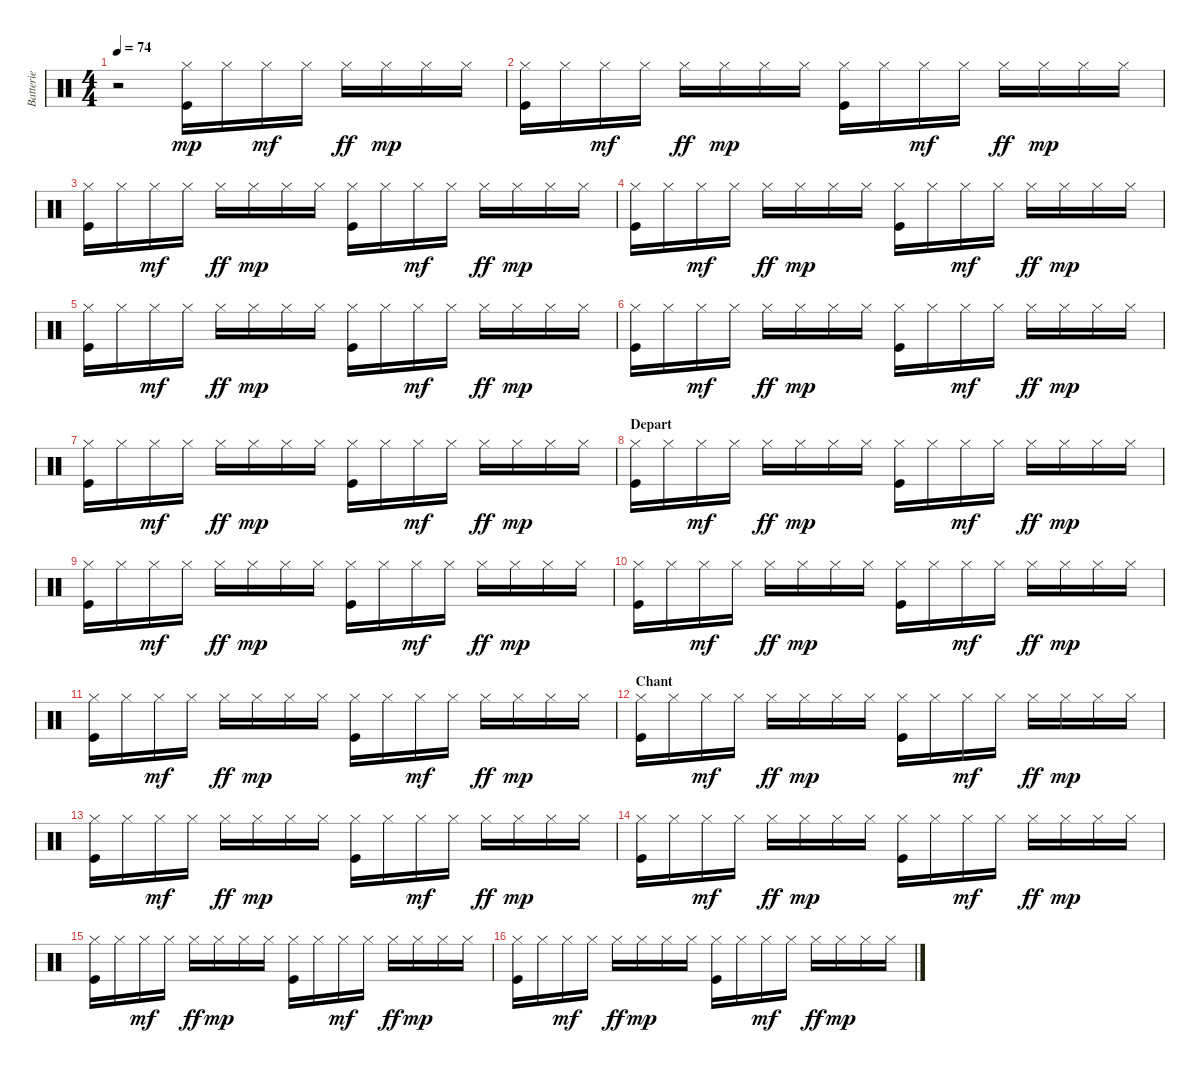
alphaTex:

\track ("Batterie" "Batterie") {instrument percussion}
\staff {score}
\articulation defaults
\ts (4 4)
\tempo 74
\clef neutral
\ks c
r.2{dy mp} ("Hi-Hat (closed)" "Kick (hit)").16 "Hi-Hat (closed)".16 "Hi-Hat (closed)".16{dy mf} "Hi-Hat (closed)".16 "Hi-Hat (closed)".16{dy ff} "Hi-Hat (closed)".16{dy mp} "Hi-Hat (closed)".16 "Hi-Hat (closed)".16 |
("Hi-Hat (closed)" "Kick (hit)").16 "Hi-Hat (closed)".16 "Hi-Hat (closed)".16{dy mf} "Hi-Hat (closed)".16 "Hi-Hat (closed)".16{dy ff} "Hi-Hat (closed)".16{dy mp} "Hi-Hat (closed)".16 "Hi-Hat (closed)".16 ("Hi-Hat (closed)" "Kick (hit)").16 "Hi-Hat (closed)".16 "Hi-Hat (closed)".16{dy mf} "Hi-Hat (closed)".16 "Hi-Hat (closed)".16{dy ff} "Hi-Hat (closed)".16{dy mp} "Hi-Hat (closed)".16 "Hi-Hat (closed)".16 |
("Hi-Hat (closed)" "Kick (hit)").16 "Hi-Hat (closed)".16 "Hi-Hat (closed)".16{dy mf} "Hi-Hat (closed)".16 "Hi-Hat (closed)".16{dy ff} "Hi-Hat (closed)".16{dy mp} "Hi-Hat (closed)".16 "Hi-Hat (closed)".16 ("Hi-Hat (closed)" "Kick (hit)").16 "Hi-Hat (closed)".16 "Hi-Hat (closed)".16{dy mf} "Hi-Hat (closed)".16 "Hi-Hat (closed)".16{dy ff} "Hi-Hat (closed)".16{dy mp} "Hi-Hat (closed)".16 "Hi-Hat (closed)".16 |
("Hi-Hat (closed)" "Kick (hit)").16 "Hi-Hat (closed)".16 "Hi-Hat (closed)".16{dy mf} "Hi-Hat (closed)".16 "Hi-Hat (closed)".16{dy ff} "Hi-Hat (closed)".16{dy mp} "Hi-Hat (closed)".16 "Hi-Hat (closed)".16 ("Hi-Hat (closed)" "Kick (hit)").16 "Hi-Hat (closed)".16 "Hi-Hat (closed)".16{dy mf} "Hi-Hat (closed)".16 "Hi-Hat (closed)".16{dy ff} "Hi-Hat (closed)".16{dy mp} "Hi-Hat (closed)".16 "Hi-Hat (closed)".16 |
("Hi-Hat (closed)" "Kick (hit)").16 "Hi-Hat (closed)".16 "Hi-Hat (closed)".16{dy mf} "Hi-Hat (closed)".16 "Hi-Hat (closed)".16{dy ff} "Hi-Hat (closed)".16{dy mp} "Hi-Hat (closed)".16 "Hi-Hat (closed)".16 ("Hi-Hat (closed)" "Kick (hit)").16 "Hi-Hat (closed)".16 "Hi-Hat (closed)".16{dy mf} "Hi-Hat (closed)".16 "Hi-Hat (closed)".16{dy ff} "Hi-Hat (closed)".16{dy mp} "Hi-Hat (closed)".16 "Hi-Hat (closed)".16 |
("Hi-Hat (closed)" "Kick (hit)").16 "Hi-Hat (closed)".16 "Hi-Hat (closed)".16{dy mf} "Hi-Hat (closed)".16 "Hi-Hat (closed)".16{dy ff} "Hi-Hat (closed)".16{dy mp} "Hi-Hat (closed)".16 "Hi-Hat (closed)".16 ("Hi-Hat (closed)" "Kick (hit)").16 "Hi-Hat (closed)".16 "Hi-Hat (closed)".16{dy mf} "Hi-Hat (closed)".16 "Hi-Hat (closed)".16{dy ff} "Hi-Hat (closed)".16{dy mp} "Hi-Hat (closed)".16 "Hi-Hat (closed)".16 |
("Hi-Hat (closed)" "Kick (hit)").16 "Hi-Hat (closed)".16 "Hi-Hat (closed)".16{dy mf} "Hi-Hat (closed)".16 "Hi-Hat (closed)".16{dy ff} "Hi-Hat (closed)".16{dy mp} "Hi-Hat (closed)".16 "Hi-Hat (closed)".16 ("Hi-Hat (closed)" "Kick (hit)").16 "Hi-Hat (closed)".16 "Hi-Hat (closed)".16{dy mf} "Hi-Hat (closed)".16 "Hi-Hat (closed)".16{dy ff} "Hi-Hat (closed)".16{dy mp} "Hi-Hat (closed)".16 "Hi-Hat (closed)".16 |
\section ("" "Depart")
("Hi-Hat (closed)" "Kick (hit)").16 "Hi-Hat (closed)".16 "Hi-Hat (closed)".16{dy mf} "Hi-Hat (closed)".16 "Hi-Hat (closed)".16{dy ff} "Hi-Hat (closed)".16{dy mp} "Hi-Hat (closed)".16 "Hi-Hat (closed)".16 ("Hi-Hat (closed)" "Kick (hit)").16 "Hi-Hat (closed)".16 "Hi-Hat (closed)".16{dy mf} "Hi-Hat (closed)".16 "Hi-Hat (closed)".16{dy ff} "Hi-Hat (closed)".16{dy mp} "Hi-Hat (closed)".16 "Hi-Hat (closed)".16 |
("Hi-Hat (closed)" "Kick (hit)").16 "Hi-Hat (closed)".16 "Hi-Hat (closed)".16{dy mf} "Hi-Hat (closed)".16 "Hi-Hat (closed)".16{dy ff} "Hi-Hat (closed)".16{dy mp} "Hi-Hat (closed)".16 "Hi-Hat (closed)".16 ("Hi-Hat (closed)" "Kick (hit)").16 "Hi-Hat (closed)".16 "Hi-Hat (closed)".16{dy mf} "Hi-Hat (closed)".16 "Hi-Hat (closed)".16{dy ff} "Hi-Hat (closed)".16{dy mp} "Hi-Hat (closed)".16 "Hi-Hat (closed)".16 |
("Hi-Hat (closed)" "Kick (hit)").16 "Hi-Hat (closed)".16 "Hi-Hat (closed)".16{dy mf} "Hi-Hat (closed)".16 "Hi-Hat (closed)".16{dy ff} "Hi-Hat (closed)".16{dy mp} "Hi-Hat (closed)".16 "Hi-Hat (closed)".16 ("Hi-Hat (closed)" "Kick (hit)").16 "Hi-Hat (closed)".16 "Hi-Hat (closed)".16{dy mf} "Hi-Hat (closed)".16 "Hi-Hat (closed)".16{dy ff} "Hi-Hat (closed)".16{dy mp} "Hi-Hat (closed)".16 "Hi-Hat (closed)".16 |
("Hi-Hat (closed)" "Kick (hit)").16 "Hi-Hat (closed)".16 "Hi-Hat (closed)".16{dy mf} "Hi-Hat (closed)".16 "Hi-Hat (closed)".16{dy ff} "Hi-Hat (closed)".16{dy mp} "Hi-Hat (closed)".16 "Hi-Hat (closed)".16 ("Hi-Hat (closed)" "Kick (hit)").16 "Hi-Hat (closed)".16 "Hi-Hat (closed)".16{dy mf} "Hi-Hat (closed)".16 "Hi-Hat (closed)".16{dy ff} "Hi-Hat (closed)".16{dy mp} "Hi-Hat (closed)".16 "Hi-Hat (closed)".16 |
\section ("" "Chant")
("Hi-Hat (closed)" "Kick (hit)").16 "Hi-Hat (closed)".16 "Hi-Hat (closed)".16{dy mf} "Hi-Hat (closed)".16 "Hi-Hat (closed)".16{dy ff} "Hi-Hat (closed)".16{dy mp} "Hi-Hat (closed)".16 "Hi-Hat (closed)".16 ("Hi-Hat (closed)" "Kick (hit)").16 "Hi-Hat (closed)".16 "Hi-Hat (closed)".16{dy mf} "Hi-Hat (closed)".16 "Hi-Hat (closed)".16{dy ff} "Hi-Hat (closed)".16{dy mp} "Hi-Hat (closed)".16 "Hi-Hat (closed)".16 |
("Hi-Hat (closed)" "Kick (hit)").16 "Hi-Hat (closed)".16 "Hi-Hat (closed)".16{dy mf} "Hi-Hat (closed)".16 "Hi-Hat (closed)".16{dy ff} "Hi-Hat (closed)".16{dy mp} "Hi-Hat (closed)".16 "Hi-Hat (closed)".16 ("Hi-Hat (closed)" "Kick (hit)").16 "Hi-Hat (closed)".16 "Hi-Hat (closed)".16{dy mf} "Hi-Hat (closed)".16 "Hi-Hat (closed)".16{dy ff} "Hi-Hat (closed)".16{dy mp} "Hi-Hat (closed)".16 "Hi-Hat (closed)".16 |
("Hi-Hat (closed)" "Kick (hit)").16 "Hi-Hat (closed)".16 "Hi-Hat (closed)".16{dy mf} "Hi-Hat (closed)".16 "Hi-Hat (closed)".16{dy ff} "Hi-Hat (closed)".16{dy mp} "Hi-Hat (closed)".16 "Hi-Hat (closed)".16 ("Hi-Hat (closed)" "Kick (hit)").16 "Hi-Hat (closed)".16 "Hi-Hat (closed)".16{dy mf} "Hi-Hat (closed)".16 "Hi-Hat (closed)".16{dy ff} "Hi-Hat (closed)".16{dy mp} "Hi-Hat (closed)".16 "Hi-Hat (closed)".16 |
("Hi-Hat (closed)" "Kick (hit)").16 "Hi-Hat (closed)".16 "Hi-Hat (closed)".16{dy mf} "Hi-Hat (closed)".16 "Hi-Hat (closed)".16{dy ff} "Hi-Hat (closed)".16{dy mp} "Hi-Hat (closed)".16 "Hi-Hat (closed)".16 ("Hi-Hat (closed)" "Kick (hit)").16 "Hi-Hat (closed)".16 "Hi-Hat (closed)".16{dy mf} "Hi-Hat (closed)".16 "Hi-Hat (closed)".16{dy ff} "Hi-Hat (closed)".16{dy mp} "Hi-Hat (closed)".16 "Hi-Hat (closed)".16 |
("Hi-Hat (closed)" "Kick (hit)").16 "Hi-Hat (closed)".16 "Hi-Hat (closed)".16{dy mf} "Hi-Hat (closed)".16 "Hi-Hat (closed)".16{dy ff} "Hi-Hat (closed)".16{dy mp} "Hi-Hat (closed)".16 "Hi-Hat (closed)".16 ("Hi-Hat (closed)" "Kick (hit)").16 "Hi-Hat (closed)".16 "Hi-Hat (closed)".16{dy mf} "Hi-Hat (closed)".16 "Hi-Hat (closed)".16{dy ff} "Hi-Hat (closed)".16{dy mp} "Hi-Hat (closed)".16 "Hi-Hat (closed)".16
